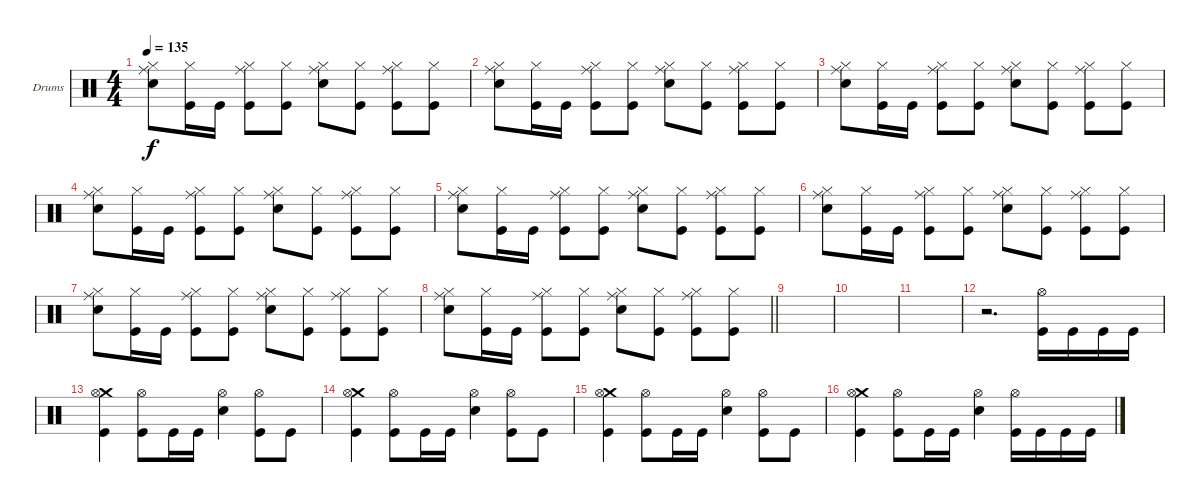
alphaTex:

\defaultSystemsLayout 4
\bracketExtendMode groupsimilarinstruments
\firstSystemTrackNameOrientation horizontal
\otherSystemsTrackNameOrientation horizontal
\track ("Drumkit" "Drums") {instrument percussion}
\staff {score}
\articulation defaults
\ts (4 4)
\tempo 135
\clef neutral
\ks c
("Snare (hit) 2" "Hi-Hat (closed)" "Ride (middle)").8{dy f} ("Kick (hit)" "Hi-Hat (closed)").16 "Kick (hit)".16 ("Kick (hit)" "Hi-Hat (closed)" "Ride (middle)").8 ("Kick (hit)" "Hi-Hat (closed)").8 ("Snare (hit) 2" "Hi-Hat (closed)" "Ride (middle)").8 ("Kick (hit)" "Hi-Hat (closed)").8 ("Kick (hit)" "Hi-Hat (closed)" "Ride (middle)").8 ("Kick (hit)" "Hi-Hat (closed)").8 |
("Snare (hit) 2" "Hi-Hat (closed)" "Ride (middle)").8 ("Kick (hit)" "Hi-Hat (closed)").16 "Kick (hit)".16 ("Kick (hit)" "Hi-Hat (closed)" "Ride (middle)").8 ("Kick (hit)" "Hi-Hat (closed)").8 ("Snare (hit) 2" "Hi-Hat (closed)" "Ride (middle)").8 ("Kick (hit)" "Hi-Hat (closed)").8 ("Kick (hit)" "Hi-Hat (closed)" "Ride (middle)").8 ("Kick (hit)" "Hi-Hat (closed)").8 |
("Snare (hit) 2" "Hi-Hat (closed)" "Ride (middle)").8 ("Kick (hit)" "Hi-Hat (closed)").16 "Kick (hit)".16 ("Kick (hit)" "Hi-Hat (closed)" "Ride (middle)").8 ("Kick (hit)" "Hi-Hat (closed)").8 ("Snare (hit) 2" "Hi-Hat (closed)" "Ride (middle)").8 ("Kick (hit)" "Hi-Hat (closed)").8 ("Kick (hit)" "Hi-Hat (closed)" "Ride (middle)").8 ("Kick (hit)" "Hi-Hat (closed)").8 |
("Snare (hit) 2" "Hi-Hat (closed)" "Ride (middle)").8 ("Kick (hit)" "Hi-Hat (closed)").16 "Kick (hit)".16 ("Kick (hit)" "Hi-Hat (closed)" "Ride (middle)").8 ("Kick (hit)" "Hi-Hat (closed)").8 ("Snare (hit) 2" "Hi-Hat (closed)" "Ride (middle)").8 ("Kick (hit)" "Hi-Hat (closed)").8 ("Kick (hit)" "Hi-Hat (closed)" "Ride (middle)").8 ("Kick (hit)" "Hi-Hat (closed)").8 |
("Snare (hit) 2" "Hi-Hat (closed)" "Ride (middle)").8 ("Kick (hit)" "Hi-Hat (closed)").16 "Kick (hit)".16 ("Kick (hit)" "Hi-Hat (closed)" "Ride (middle)").8 ("Kick (hit)" "Hi-Hat (closed)").8 ("Snare (hit) 2" "Hi-Hat (closed)" "Ride (middle)").8 ("Kick (hit)" "Hi-Hat (closed)").8 ("Kick (hit)" "Hi-Hat (closed)" "Ride (middle)").8 ("Kick (hit)" "Hi-Hat (closed)").8 |
("Snare (hit) 2" "Hi-Hat (closed)" "Ride (middle)").8 ("Kick (hit)" "Hi-Hat (closed)").16 "Kick (hit)".16 ("Kick (hit)" "Hi-Hat (closed)" "Ride (middle)").8 ("Kick (hit)" "Hi-Hat (closed)").8 ("Snare (hit) 2" "Hi-Hat (closed)" "Ride (middle)").8 ("Kick (hit)" "Hi-Hat (closed)").8 ("Kick (hit)" "Hi-Hat (closed)" "Ride (middle)").8 ("Kick (hit)" "Hi-Hat (closed)").8 |
("Snare (hit) 2" "Hi-Hat (closed)" "Ride (middle)").8 ("Kick (hit)" "Hi-Hat (closed)").16 "Kick (hit)".16 ("Kick (hit)" "Hi-Hat (closed)" "Ride (middle)").8 ("Kick (hit)" "Hi-Hat (closed)").8 ("Snare (hit) 2" "Hi-Hat (closed)" "Ride (middle)").8 ("Kick (hit)" "Hi-Hat (closed)").8 ("Kick (hit)" "Hi-Hat (closed)" "Ride (middle)").8 ("Kick (hit)" "Hi-Hat (closed)").8 |
\barLineRight lightlight
("Snare (hit) 2" "Hi-Hat (closed)" "Ride (middle)").8 ("Kick (hit)" "Hi-Hat (closed)").16 "Kick (hit)".16 ("Kick (hit)" "Hi-Hat (closed)" "Ride (middle)").8 ("Kick (hit)" "Hi-Hat (closed)").8 ("Snare (hit) 2" "Hi-Hat (closed)" "Ride (middle)").8 ("Kick (hit)" "Hi-Hat (closed)").8 ("Kick (hit)" "Hi-Hat (closed)" "Ride (middle)").8 ("Kick (hit)" "Hi-Hat (closed)").8 |
|
|
|
r.2{d} ("Kick (hit)" "Hi-Hat (open)").16 "Kick (hit)".16 "Kick (hit)".16 "Kick (hit)".16 |
("Kick (hit)" "Crash medium (hit)" "Hi-Hat (open)").4 ("Kick (hit)" "Hi-Hat (open)").8 "Kick (hit)".16 "Kick (hit)".16 ("Snare (hit) 2" "Hi-Hat (open)").4 ("Kick (hit)" "Hi-Hat (open)").8 "Kick (hit)".8 |
("Kick (hit)" "Crash medium (hit)" "Hi-Hat (open)").4 ("Kick (hit)" "Hi-Hat (open)").8 "Kick (hit)".16 "Kick (hit)".16 ("Snare (hit) 2" "Hi-Hat (open)").4 ("Kick (hit)" "Hi-Hat (open)").8 "Kick (hit)".8 |
("Kick (hit)" "Crash medium (hit)" "Hi-Hat (open)").4 ("Kick (hit)" "Hi-Hat (open)").8 "Kick (hit)".16 "Kick (hit)".16 ("Snare (hit) 2" "Hi-Hat (open)").4 ("Kick (hit)" "Hi-Hat (open)").8 "Kick (hit)".8 |
("Kick (hit)" "Crash medium (hit)" "Hi-Hat (open)").4 ("Kick (hit)" "Hi-Hat (open)").8 "Kick (hit)".16 "Kick (hit)".16 ("Snare (hit) 2" "Hi-Hat (open)").4 ("Kick (hit)" "Hi-Hat (open)").16 "Kick (hit)".16 "Kick (hit)".16 "Kick (hit)".16
